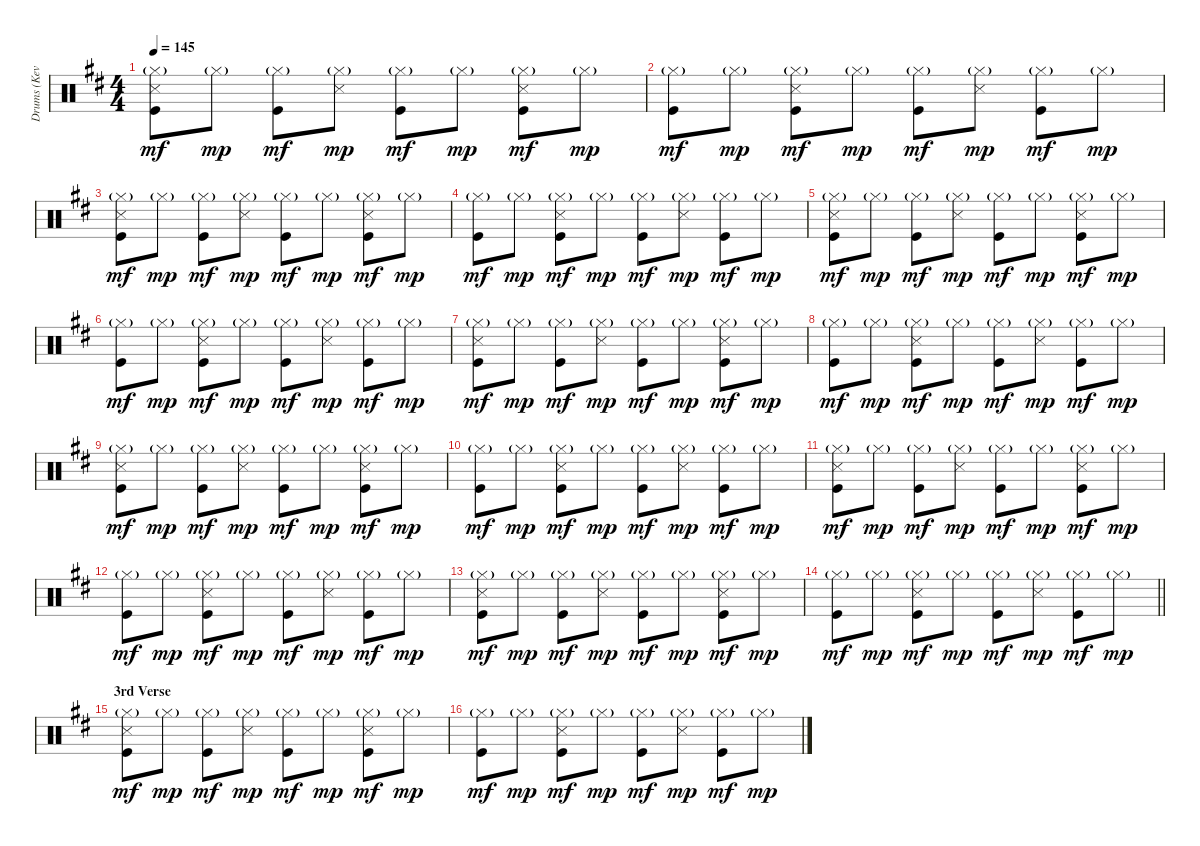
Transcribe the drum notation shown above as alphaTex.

\track ("Drums (Kevin Haskins)" "Drums (Kev") {instrument percussion}
\staff {score}
\articulation defaults
\ts (4 4)
\tempo 145
\clef neutral
\ks d
("Hi-Hat (closed)"{g} "Snare (side stick) 3" "Kick (hit)").8{dy mf} "Hi-Hat (closed)"{g}.8{dy mp} ("Hi-Hat (closed)"{g} "Kick (hit)").8{dy mf} ("Hi-Hat (closed)"{g} "Snare (side stick) 3").8{dy mp} ("Hi-Hat (closed)"{g} "Kick (hit)").8{dy mf} "Hi-Hat (closed)"{g}.8{dy mp} ("Hi-Hat (closed)"{g} "Snare (side stick) 3" "Kick (hit)").8{dy mf} "Hi-Hat (closed)"{g}.8{dy mp} |
("Hi-Hat (closed)"{g} "Kick (hit)").8{dy mf} "Hi-Hat (closed)"{g}.8{dy mp} ("Hi-Hat (closed)"{g} "Snare (side stick) 3" "Kick (hit)").8{dy mf} "Hi-Hat (closed)"{g}.8{dy mp} ("Hi-Hat (closed)"{g} "Kick (hit)").8{dy mf} ("Hi-Hat (closed)"{g} "Snare (side stick) 3").8{dy mp} ("Hi-Hat (closed)"{g} "Kick (hit)").8{dy mf} "Hi-Hat (closed)"{g}.8{dy mp} |
("Hi-Hat (closed)"{g} "Snare (side stick) 3" "Kick (hit)").8{dy mf} "Hi-Hat (closed)"{g}.8{dy mp} ("Hi-Hat (closed)"{g} "Kick (hit)").8{dy mf} ("Hi-Hat (closed)"{g} "Snare (side stick) 3").8{dy mp} ("Hi-Hat (closed)"{g} "Kick (hit)").8{dy mf} "Hi-Hat (closed)"{g}.8{dy mp} ("Hi-Hat (closed)"{g} "Snare (side stick) 3" "Kick (hit)").8{dy mf} "Hi-Hat (closed)"{g}.8{dy mp} |
("Hi-Hat (closed)"{g} "Kick (hit)").8{dy mf} "Hi-Hat (closed)"{g}.8{dy mp} ("Hi-Hat (closed)"{g} "Snare (side stick) 3" "Kick (hit)").8{dy mf} "Hi-Hat (closed)"{g}.8{dy mp} ("Hi-Hat (closed)"{g} "Kick (hit)").8{dy mf} ("Hi-Hat (closed)"{g} "Snare (side stick) 3").8{dy mp} ("Hi-Hat (closed)"{g} "Kick (hit)").8{dy mf} "Hi-Hat (closed)"{g}.8{dy mp} |
("Hi-Hat (closed)"{g} "Snare (side stick) 3" "Kick (hit)").8{dy mf} "Hi-Hat (closed)"{g}.8{dy mp} ("Hi-Hat (closed)"{g} "Kick (hit)").8{dy mf} ("Hi-Hat (closed)"{g} "Snare (side stick) 3").8{dy mp} ("Hi-Hat (closed)"{g} "Kick (hit)").8{dy mf} "Hi-Hat (closed)"{g}.8{dy mp} ("Hi-Hat (closed)"{g} "Snare (side stick) 3" "Kick (hit)").8{dy mf} "Hi-Hat (closed)"{g}.8{dy mp} |
("Hi-Hat (closed)"{g} "Kick (hit)").8{dy mf} "Hi-Hat (closed)"{g}.8{dy mp} ("Hi-Hat (closed)"{g} "Snare (side stick) 3" "Kick (hit)").8{dy mf} "Hi-Hat (closed)"{g}.8{dy mp} ("Hi-Hat (closed)"{g} "Kick (hit)").8{dy mf} ("Hi-Hat (closed)"{g} "Snare (side stick) 3").8{dy mp} ("Hi-Hat (closed)"{g} "Kick (hit)").8{dy mf} "Hi-Hat (closed)"{g}.8{dy mp} |
("Hi-Hat (closed)"{g} "Snare (side stick) 3" "Kick (hit)").8{dy mf} "Hi-Hat (closed)"{g}.8{dy mp} ("Hi-Hat (closed)"{g} "Kick (hit)").8{dy mf} ("Hi-Hat (closed)"{g} "Snare (side stick) 3").8{dy mp} ("Hi-Hat (closed)"{g} "Kick (hit)").8{dy mf} "Hi-Hat (closed)"{g}.8{dy mp} ("Hi-Hat (closed)"{g} "Snare (side stick) 3" "Kick (hit)").8{dy mf} "Hi-Hat (closed)"{g}.8{dy mp} |
("Hi-Hat (closed)"{g} "Kick (hit)").8{dy mf} "Hi-Hat (closed)"{g}.8{dy mp} ("Hi-Hat (closed)"{g} "Snare (side stick) 3" "Kick (hit)").8{dy mf} "Hi-Hat (closed)"{g}.8{dy mp} ("Hi-Hat (closed)"{g} "Kick (hit)").8{dy mf} ("Hi-Hat (closed)"{g} "Snare (side stick) 3").8{dy mp} ("Hi-Hat (closed)"{g} "Kick (hit)").8{dy mf} "Hi-Hat (closed)"{g}.8{dy mp} |
("Hi-Hat (closed)"{g} "Snare (side stick) 3" "Kick (hit)").8{dy mf} "Hi-Hat (closed)"{g}.8{dy mp} ("Hi-Hat (closed)"{g} "Kick (hit)").8{dy mf} ("Hi-Hat (closed)"{g} "Snare (side stick) 3").8{dy mp} ("Hi-Hat (closed)"{g} "Kick (hit)").8{dy mf} "Hi-Hat (closed)"{g}.8{dy mp} ("Hi-Hat (closed)"{g} "Snare (side stick) 3" "Kick (hit)").8{dy mf} "Hi-Hat (closed)"{g}.8{dy mp} |
("Hi-Hat (closed)"{g} "Kick (hit)").8{dy mf} "Hi-Hat (closed)"{g}.8{dy mp} ("Hi-Hat (closed)"{g} "Snare (side stick) 3" "Kick (hit)").8{dy mf} "Hi-Hat (closed)"{g}.8{dy mp} ("Hi-Hat (closed)"{g} "Kick (hit)").8{dy mf} ("Hi-Hat (closed)"{g} "Snare (side stick) 3").8{dy mp} ("Hi-Hat (closed)"{g} "Kick (hit)").8{dy mf} "Hi-Hat (closed)"{g}.8{dy mp} |
("Hi-Hat (closed)"{g} "Snare (side stick) 3" "Kick (hit)").8{dy mf} "Hi-Hat (closed)"{g}.8{dy mp} ("Hi-Hat (closed)"{g} "Kick (hit)").8{dy mf} ("Hi-Hat (closed)"{g} "Snare (side stick) 3").8{dy mp} ("Hi-Hat (closed)"{g} "Kick (hit)").8{dy mf} "Hi-Hat (closed)"{g}.8{dy mp} ("Hi-Hat (closed)"{g} "Snare (side stick) 3" "Kick (hit)").8{dy mf} "Hi-Hat (closed)"{g}.8{dy mp} |
("Hi-Hat (closed)"{g} "Kick (hit)").8{dy mf} "Hi-Hat (closed)"{g}.8{dy mp} ("Hi-Hat (closed)"{g} "Snare (side stick) 3" "Kick (hit)").8{dy mf} "Hi-Hat (closed)"{g}.8{dy mp} ("Hi-Hat (closed)"{g} "Kick (hit)").8{dy mf} ("Hi-Hat (closed)"{g} "Snare (side stick) 3").8{dy mp} ("Hi-Hat (closed)"{g} "Kick (hit)").8{dy mf} "Hi-Hat (closed)"{g}.8{dy mp} |
("Hi-Hat (closed)"{g} "Snare (side stick) 3" "Kick (hit)").8{dy mf} "Hi-Hat (closed)"{g}.8{dy mp} ("Hi-Hat (closed)"{g} "Kick (hit)").8{dy mf} ("Hi-Hat (closed)"{g} "Snare (side stick) 3").8{dy mp} ("Hi-Hat (closed)"{g} "Kick (hit)").8{dy mf} "Hi-Hat (closed)"{g}.8{dy mp} ("Hi-Hat (closed)"{g} "Snare (side stick) 3" "Kick (hit)").8{dy mf} "Hi-Hat (closed)"{g}.8{dy mp} |
\barLineRight lightlight
("Hi-Hat (closed)"{g} "Kick (hit)").8{dy mf} "Hi-Hat (closed)"{g}.8{dy mp} ("Hi-Hat (closed)"{g} "Snare (side stick) 3" "Kick (hit)").8{dy mf} "Hi-Hat (closed)"{g}.8{dy mp} ("Hi-Hat (closed)"{g} "Kick (hit)").8{dy mf} ("Hi-Hat (closed)"{g} "Snare (side stick) 3").8{dy mp} ("Hi-Hat (closed)"{g} "Kick (hit)").8{dy mf} "Hi-Hat (closed)"{g}.8{dy mp} |
\section ("" "3rd Verse")
("Hi-Hat (closed)"{g} "Snare (side stick) 3" "Kick (hit)").8{dy mf} "Hi-Hat (closed)"{g}.8{dy mp} ("Hi-Hat (closed)"{g} "Kick (hit)").8{dy mf} ("Hi-Hat (closed)"{g} "Snare (side stick) 3").8{dy mp} ("Hi-Hat (closed)"{g} "Kick (hit)").8{dy mf} "Hi-Hat (closed)"{g}.8{dy mp} ("Hi-Hat (closed)"{g} "Snare (side stick) 3" "Kick (hit)").8{dy mf} "Hi-Hat (closed)"{g}.8{dy mp} |
("Hi-Hat (closed)"{g} "Kick (hit)").8{dy mf} "Hi-Hat (closed)"{g}.8{dy mp} ("Hi-Hat (closed)"{g} "Snare (side stick) 3" "Kick (hit)").8{dy mf} "Hi-Hat (closed)"{g}.8{dy mp} ("Hi-Hat (closed)"{g} "Kick (hit)").8{dy mf} ("Hi-Hat (closed)"{g} "Snare (side stick) 3").8{dy mp} ("Hi-Hat (closed)"{g} "Kick (hit)").8{dy mf} "Hi-Hat (closed)"{g}.8{dy mp}
